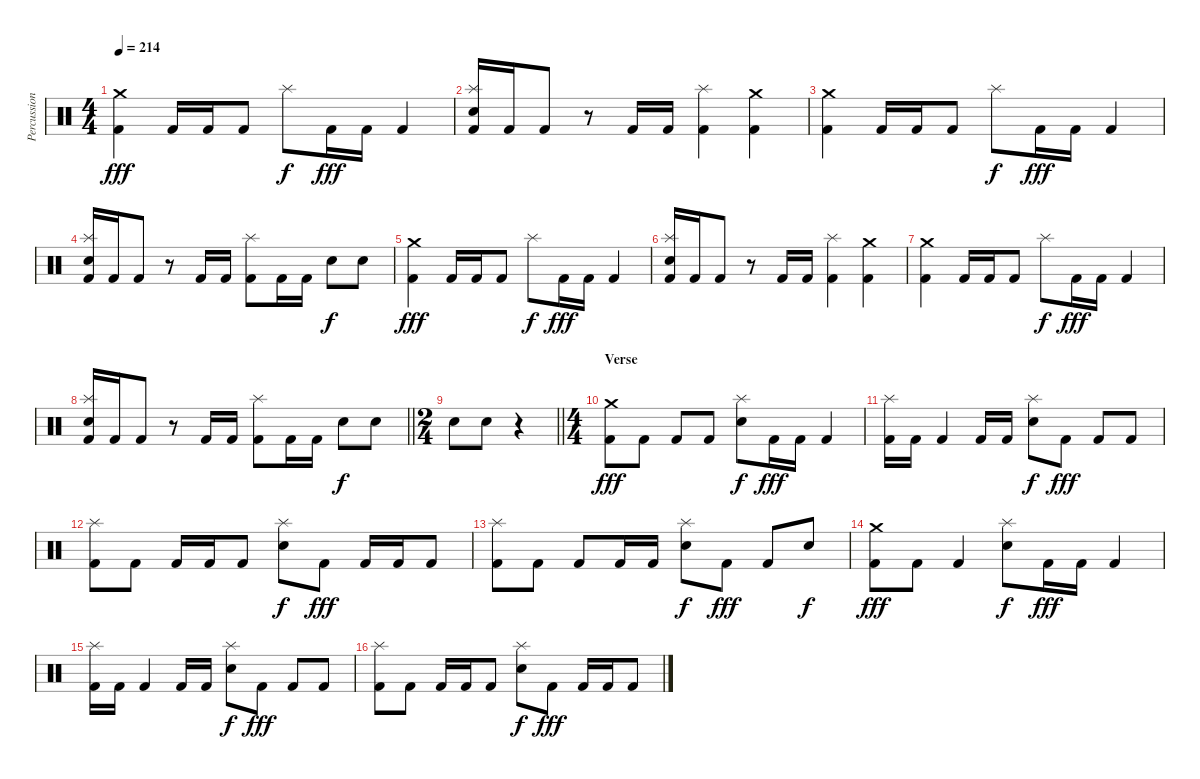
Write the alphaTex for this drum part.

\track ("Percussion" "Percussion") {instrument percussion}
\staff {score}
\articulation defaults
\ts (4 4)
\tempo 214
\clef neutral
\ks c
("Crash medium (hit)" "Kick (hit) 2").4{dy fff} "Kick (hit) 2".16 "Kick (hit) 2".16 "Kick (hit) 2".8 "Splash (hit)".8{dy f} "Kick (hit) 2".16{dy fff} "Kick (hit) 2".16 "Kick (hit) 2".4 |
("Splash (hit)" "Electric Snare (hit)" "Kick (hit) 2").16 "Kick (hit) 2".16 "Kick (hit) 2".8 r.8 "Kick (hit) 2".16 "Kick (hit) 2".16 ("Splash (hit)" "Kick (hit) 2").4 ("Crash medium (hit)" "Kick (hit) 2").4 |
("Crash medium (hit)" "Kick (hit) 2").4 "Kick (hit) 2".16 "Kick (hit) 2".16 "Kick (hit) 2".8 "Splash (hit)".8{dy f} "Kick (hit) 2".16{dy fff} "Kick (hit) 2".16 "Kick (hit) 2".4 |
("Splash (hit)" "Electric Snare (hit)" "Kick (hit) 2").16 "Kick (hit) 2".16 "Kick (hit) 2".8 r.8 "Kick (hit) 2".16 "Kick (hit) 2".16 ("Splash (hit)" "Kick (hit) 2").8 "Kick (hit) 2".16 "Kick (hit) 2".16 "Electric Snare (hit)".8{dy f} "Electric Snare (hit)".8 |
("Crash medium (hit)" "Kick (hit) 2").4{dy fff} "Kick (hit) 2".16 "Kick (hit) 2".16 "Kick (hit) 2".8 "Splash (hit)".8{dy f} "Kick (hit) 2".16{dy fff} "Kick (hit) 2".16 "Kick (hit) 2".4 |
("Splash (hit)" "Electric Snare (hit)" "Kick (hit) 2").16 "Kick (hit) 2".16 "Kick (hit) 2".8 r.8 "Kick (hit) 2".16 "Kick (hit) 2".16 ("Splash (hit)" "Kick (hit) 2").4 ("Crash medium (hit)" "Kick (hit) 2").4 |
("Crash medium (hit)" "Kick (hit) 2").4 "Kick (hit) 2".16 "Kick (hit) 2".16 "Kick (hit) 2".8 "Splash (hit)".8{dy f} "Kick (hit) 2".16{dy fff} "Kick (hit) 2".16 "Kick (hit) 2".4 |
\barLineRight lightlight
("Splash (hit)" "Electric Snare (hit)" "Kick (hit) 2").16 "Kick (hit) 2".16 "Kick (hit) 2".8 r.8 "Kick (hit) 2".16 "Kick (hit) 2".16 ("Splash (hit)" "Kick (hit) 2").8 "Kick (hit) 2".16 "Kick (hit) 2".16 "Electric Snare (hit)".8{dy f} "Electric Snare (hit)".8 |
\ts (2 4)
\section ("" "")
\barLineRight lightlight "Electric Snare (hit)".8 "Electric Snare (hit)".8
r.4 |
\ts (4 4)
\section ("" "Verse")
("Crash medium (hit)" "Kick (hit) 2").8{dy fff} "Kick (hit) 2".8 "Kick (hit) 2".8 "Kick (hit) 2".8 ("Splash (hit)" "Electric Snare (hit)").8{dy f} "Kick (hit) 2".16{dy fff} "Kick (hit) 2".16 "Kick (hit) 2".4 |
("Splash (hit)" "Kick (hit) 2").16 "Kick (hit) 2".16 "Kick (hit) 2".4 "Kick (hit) 2".16 "Kick (hit) 2".16 ("Splash (hit)" "Electric Snare (hit)").8{dy f} "Kick (hit) 2".8{dy fff} "Kick (hit) 2".8 "Kick (hit) 2".8 |
("Splash (hit)" "Kick (hit) 2").8 "Kick (hit) 2".8 "Kick (hit) 2".16 "Kick (hit) 2".16 "Kick (hit) 2".8 ("Splash (hit)" "Electric Snare (hit)").8{dy f} "Kick (hit) 2".8{dy fff} "Kick (hit) 2".16 "Kick (hit) 2".16 "Kick (hit) 2".8 |
("Splash (hit)" "Kick (hit) 2").8 "Kick (hit) 2".8 "Kick (hit) 2".8 "Kick (hit) 2".16 "Kick (hit) 2".16 ("Splash (hit)" "Electric Snare (hit)").8{dy f} "Kick (hit) 2".8{dy fff} "Kick (hit) 2".8 "Electric Snare (hit)".8{dy f} |
("Crash medium (hit)" "Kick (hit) 2").8{dy fff} "Kick (hit) 2".8 "Kick (hit) 2".4 ("Splash (hit)" "Electric Snare (hit)").8{dy f} "Kick (hit) 2".16{dy fff} "Kick (hit) 2".16 "Kick (hit) 2".4 |
("Splash (hit)" "Kick (hit) 2").16 "Kick (hit) 2".16 "Kick (hit) 2".4 "Kick (hit) 2".16 "Kick (hit) 2".16 ("Splash (hit)" "Electric Snare (hit)").8{dy f} "Kick (hit) 2".8{dy fff} "Kick (hit) 2".8 "Kick (hit) 2".8 |
("Splash (hit)" "Kick (hit) 2").8 "Kick (hit) 2".8 "Kick (hit) 2".16 "Kick (hit) 2".16 "Kick (hit) 2".8 ("Splash (hit)" "Electric Snare (hit)").8{dy f} "Kick (hit) 2".8{dy fff} "Kick (hit) 2".16 "Kick (hit) 2".16 "Kick (hit) 2".8
